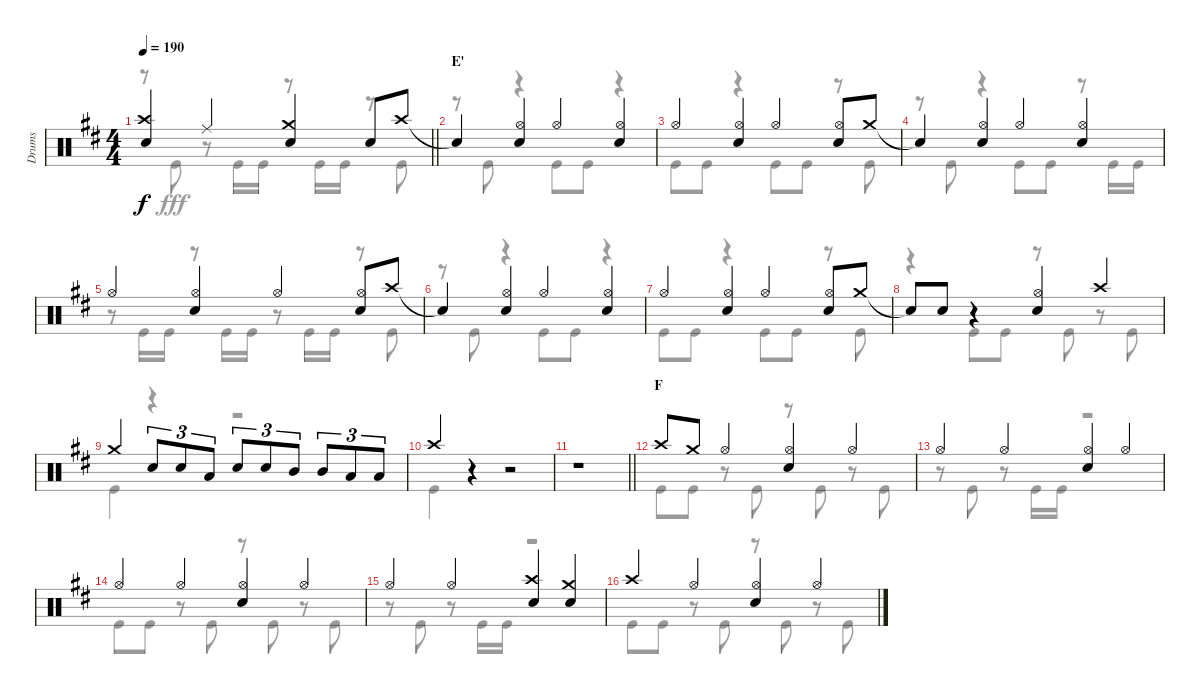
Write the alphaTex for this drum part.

\track ("Drums" "Drums") {instrument percussion}
\staff {score}
\articulation defaults
\voice
\ts (4 4)
\tempo 190
\clef neutral
\barLineRight lightlight
\ks d
("Crash high (hit)" "Snare (hit) 2").4{dy f} "Ride (middle)".4 ("Crash medium (hit)" "Snare (hit) 2").4 "Snare (hit) 2".8 "Crash high (hit)".8 |
\section ("" "E'")
"Snare (hit)"{t}.4 ("Hi-Hat (open)" "Snare (hit) 2").4 "Hi-Hat (open)".4 ("Hi-Hat (open)" "Snare (hit) 2").4 |
"Hi-Hat (open)".4 ("Hi-Hat (open)" "Snare (hit) 2").4 "Hi-Hat (open)".4 ("Hi-Hat (open)" "Snare (hit) 2").8 "Crash medium (hit)".8 |
"Snare (hit)"{t}.4 ("Hi-Hat (open)" "Snare (hit) 2").4 "Hi-Hat (open)".4 ("Hi-Hat (open)" "Snare (hit) 2").4 |
"Hi-Hat (open)".4 ("Hi-Hat (open)" "Snare (hit) 2").4 "Hi-Hat (open)".4 ("Hi-Hat (open)" "Snare (hit) 2").8 "Crash high (hit)".8 |
"Snare (hit)"{t}.4 ("Hi-Hat (open)" "Snare (hit) 2").4 "Hi-Hat (open)".4 ("Hi-Hat (open)" "Snare (hit) 2").4 |
"Hi-Hat (open)".4 ("Hi-Hat (open)" "Snare (hit) 2").4 "Hi-Hat (open)".4 ("Hi-Hat (open)" "Snare (hit) 2").8 "Crash medium (hit)".8 |
"Snare (hit)"{t}.8 "Snare (hit) 2".8 r.4 ("Hi-Hat (open)" "Snare (hit) 2").4 "Crash high (hit)".4 |
"Crash medium (hit)".4 "Snare (hit) 2".8{tu (3 2)} "Snare (hit) 2".8{tu (3 2)} "Low Tom (hit)".8{tu (3 2)} "Snare (hit) 2".8{tu (3 2)} "Snare (hit) 2".8{tu (3 2)} "Mid Tom (hit)".8{tu (3 2)} "Mid Tom (hit)".8{tu (3 2)} "Low Tom (hit)".8{tu (3 2)} "Low Tom (hit)".8{tu (3 2)} |
"Crash high (hit)".4 r.4 r.2 |
\barLineRight lightlight
r.1 |
\section ("" "F")
"Crash high (hit)".8 "Crash medium (hit)".8 "Hi-Hat (open)".4 ("Hi-Hat (open)" "Snare (hit) 2").4 "Hi-Hat (open)".4 |
"Hi-Hat (open)".4 "Hi-Hat (open)".4 ("Hi-Hat (open)" "Snare (hit) 2").4 "Hi-Hat (open)".4 |
"Hi-Hat (open)".4 "Hi-Hat (open)".4 ("Hi-Hat (open)" "Snare (hit) 2").4 "Hi-Hat (open)".4 |
"Hi-Hat (open)".4 "Hi-Hat (open)".4 ("Crash high (hit)" "Snare (hit) 2").4 ("Crash medium (hit)" "Snare (hit) 2").4 |
"Crash high (hit)".4 "Hi-Hat (open)".4 ("Hi-Hat (open)" "Snare (hit) 2").4 "Hi-Hat (open)".4
\voice
\clef neutral
\ottava regular
\simile none
\barLineRight lightlight
\ks d
r.8{dy fff} "Kick (hit)".8 r.8 "Kick (hit)".16 "Kick (hit)".16 r.8 "Kick (hit)".16 "Kick (hit)".16 r.8 "Kick (hit)".8 |
r.8 "Kick (hit)".8 r.4 "Kick (hit)".8 "Kick (hit)".8 r.4 |
"Kick (hit)".8 "Kick (hit)".8 r.4 "Kick (hit)".8 "Kick (hit)".8 r.8 "Kick (hit)".8 |
r.8 "Kick (hit)".8 r.4 "Kick (hit)".8 "Kick (hit)".8 r.8 "Kick (hit)".16 "Kick (hit)".16 |
r.8 "Kick (hit)".16 "Kick (hit)".16 r.8 "Kick (hit)".16 "Kick (hit)".16 r.8 "Kick (hit)".16 "Kick (hit)".16 r.8 "Kick (hit)".8 |
r.8 "Kick (hit)".8 r.4 "Kick (hit)".8 "Kick (hit)".8 r.4 |
"Kick (hit)".8 "Kick (hit)".8 r.4 "Kick (hit)".8 "Kick (hit)".8 r.8 "Kick (hit)".8 |
r.4 "Kick (hit)".8 "Kick (hit)".8 r.8 "Kick (hit)".8 r.8 "Kick (hit)".8 |
"Kick (hit)".4 r.4 r.2 |
"Kick (hit)".4 r.4 r.2 |
\barLineRight lightlight
r.1 |
"Kick (hit)".8 "Kick (hit)".8 r.8 "Kick (hit)".8 r.8 "Kick (hit)".8 r.8 "Kick (hit)".8 |
r.8 "Kick (hit)".8 r.8 "Kick (hit)".16 "Kick (hit)".16 r.2 |
"Kick (hit)".8 "Kick (hit)".8 r.8 "Kick (hit)".8 r.8 "Kick (hit)".8 r.8 "Kick (hit)".8 |
r.8 "Kick (hit)".8 r.8 "Kick (hit)".16 "Kick (hit)".16 r.2 |
"Kick (hit)".8 "Kick (hit)".8 r.8 "Kick (hit)".8 r.8 "Kick (hit)".8 r.8 "Kick (hit)".8
